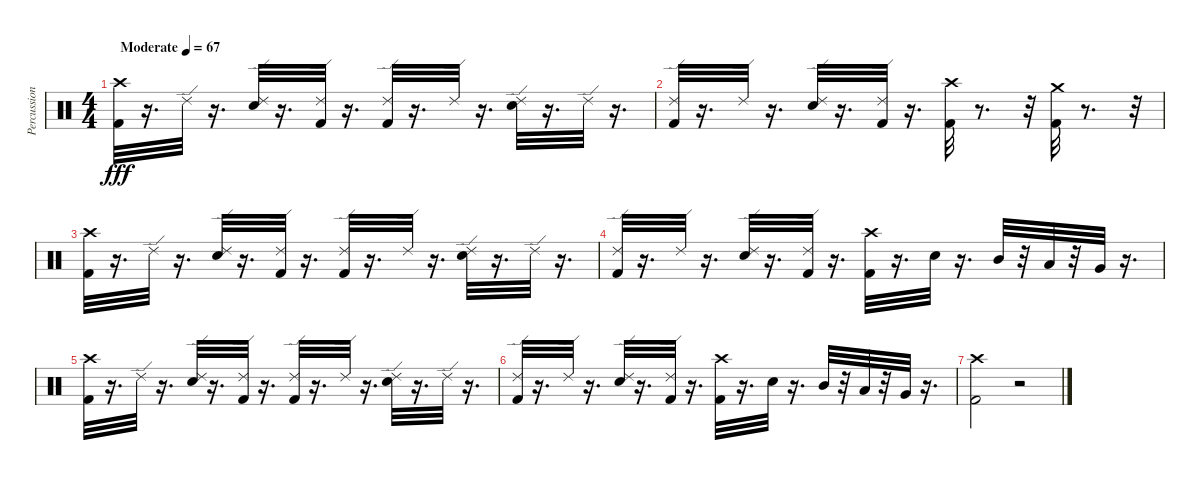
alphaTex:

\track ("Percussion" "Percussion") {instrument percussion}
\staff {score}
\articulation defaults
\ts (4 4)
\tempo (67 "Moderate")
\clef neutral
\ks c
("Kick (hit) 2" "Crash high (hit)").32{dy fff} r.16{d} "Ride (edge) 2".32 r.16{d} ("Ride (edge) 2" "Snare (hit) 2").32 r.16{d} ("Ride (edge) 2" "Kick (hit) 2").32 r.16{d} ("Ride (edge) 2" "Kick (hit) 2").32 r.16{d} "Ride (edge) 2".32 r.16{d} ("Ride (edge) 2" "Snare (hit) 2").32 r.16{d} "Ride (edge) 2".32 r.16{d} |
("Ride (edge) 2" "Kick (hit) 2").32 r.16{d} "Ride (edge) 2".32 r.16{d} ("Ride (edge) 2" "Snare (hit) 2").32 r.16{d} ("Ride (edge) 2" "Kick (hit) 2").32 r.16{d} ("Crash high (hit)" "Kick (hit) 2").32 r.8{d} r.32 ("Crash medium (hit)" "Kick (hit) 2").32 r.8{d} r.32 |
("Crash high (hit)" "Kick (hit) 2").32 r.16{d} "Ride (edge) 2".32 r.16{d} ("Ride (edge) 2" "Snare (hit) 2").32 r.16{d} ("Ride (edge) 2" "Kick (hit) 2").32 r.16{d} ("Ride (edge) 2" "Kick (hit) 2").32 r.16{d} "Ride (edge) 2".32 r.16{d} ("Ride (edge) 2" "Snare (hit) 2").32 r.16{d} "Ride (edge) 2".32 r.16{d} |
("Ride (edge) 2" "Kick (hit) 2").32 r.16{d} "Ride (edge) 2".32 r.16{d} ("Ride (edge) 2" "Snare (hit) 2").32 r.16{d} ("Ride (edge) 2" "Kick (hit) 2").32 r.16{d} ("Crash high (hit)" "Kick (hit) 2").32 r.16{d} "Snare (hit) 2".32 r.16{d} "Mid Tom (hit)".32 r.32 "Low Tom (hit)".32 r.32 "Very Low Tom (hit)".32 r.16{d} |
("Kick (hit) 2" "Crash high (hit)").32 r.16{d} "Ride (edge) 2".32 r.16{d} ("Ride (edge) 2" "Snare (hit) 2").32 r.16{d} ("Ride (edge) 2" "Kick (hit) 2").32 r.16{d} ("Ride (edge) 2" "Kick (hit) 2").32 r.16{d} "Ride (edge) 2".32 r.16{d} ("Ride (edge) 2" "Snare (hit) 2").32 r.16{d} "Ride (edge) 2".32 r.16{d} |
("Ride (edge) 2" "Kick (hit) 2").32 r.16{d} "Ride (edge) 2".32 r.16{d} ("Ride (edge) 2" "Snare (hit) 2").32 r.16{d} ("Ride (edge) 2" "Kick (hit) 2").32 r.16{d} ("Crash high (hit)" "Kick (hit) 2").32 r.16{d} "Snare (hit) 2".32 r.16{d} "Mid Tom (hit)".32 r.32 "Low Tom (hit)".32 r.32 "Very Low Tom (hit)".32 r.16{d} |
("Crash high (hit)" "Kick (hit) 2").2 r.2
